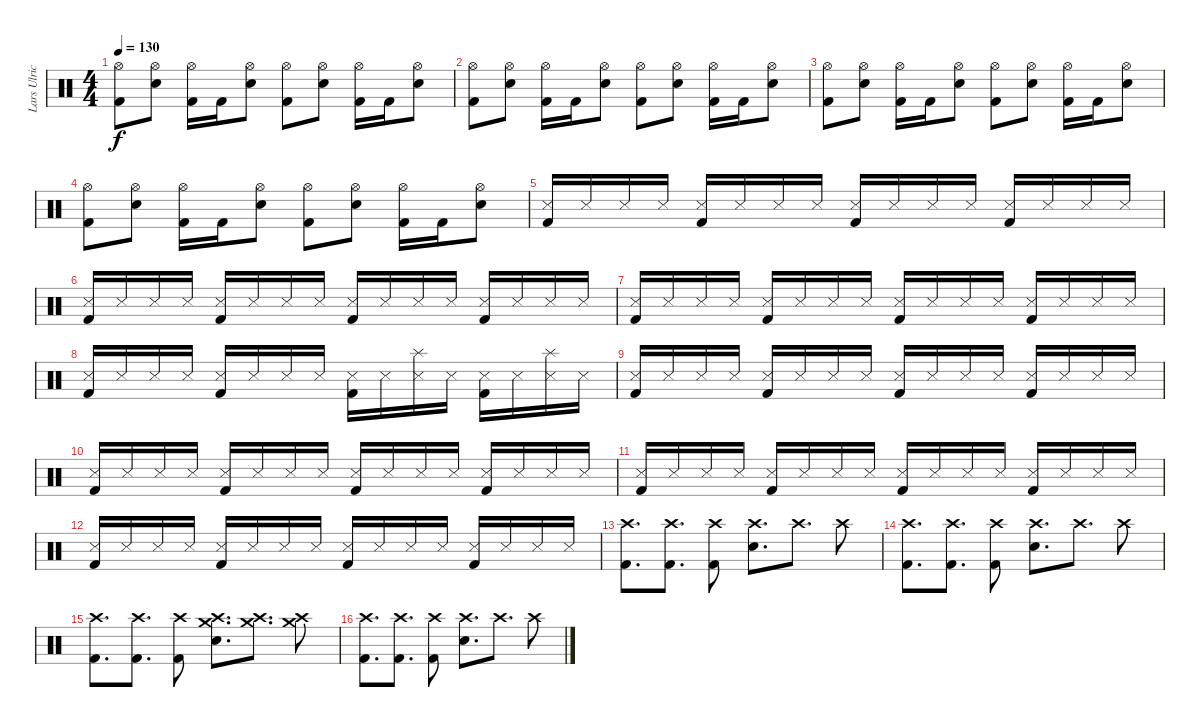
\track ("Lars Ulrich" "Lars Ulric") {instrument percussion}
\staff {score}
\articulation defaults
\ts (4 4)
\tempo 130
\clef neutral
\ks c
("Hi-Hat (open)" "Kick (hit) 2").8{dy f} ("Hi-Hat (open)" "Electric Snare (hit)").8 ("Hi-Hat (open)" "Kick (hit) 2").16 "Kick (hit) 2".16 ("Hi-Hat (open)" "Electric Snare (hit)").8 ("Hi-Hat (open)" "Kick (hit) 2").8 ("Hi-Hat (open)" "Electric Snare (hit)").8 ("Hi-Hat (open)" "Kick (hit) 2").16 "Kick (hit) 2".16 ("Hi-Hat (open)" "Electric Snare (hit)").8 |
("Hi-Hat (open)" "Kick (hit) 2").8 ("Hi-Hat (open)" "Electric Snare (hit)").8 ("Hi-Hat (open)" "Kick (hit) 2").16 "Kick (hit) 2".16 ("Hi-Hat (open)" "Electric Snare (hit)").8 ("Hi-Hat (open)" "Kick (hit) 2").8 ("Hi-Hat (open)" "Electric Snare (hit)").8 ("Hi-Hat (open)" "Kick (hit) 2").16 "Kick (hit) 2".16 ("Hi-Hat (open)" "Electric Snare (hit)").8 |
("Hi-Hat (open)" "Kick (hit) 2").8 ("Hi-Hat (open)" "Electric Snare (hit)").8 ("Hi-Hat (open)" "Kick (hit) 2").16 "Kick (hit) 2".16 ("Hi-Hat (open)" "Electric Snare (hit)").8 ("Hi-Hat (open)" "Kick (hit) 2").8 ("Hi-Hat (open)" "Electric Snare (hit)").8 ("Hi-Hat (open)" "Kick (hit) 2").16 "Kick (hit) 2".16 ("Hi-Hat (open)" "Electric Snare (hit)").8 |
("Hi-Hat (open)" "Kick (hit) 2").8 ("Hi-Hat (open)" "Electric Snare (hit)").8 ("Hi-Hat (open)" "Kick (hit) 2").16 "Kick (hit) 2".16 ("Hi-Hat (open)" "Electric Snare (hit)").8 ("Hi-Hat (open)" "Kick (hit) 2").8 ("Hi-Hat (open)" "Electric Snare (hit)").8 ("Hi-Hat (open)" "Kick (hit) 2").16 "Kick (hit) 2".16 ("Hi-Hat (open)" "Electric Snare (hit)").8 |
("Metronome (hit)" "Kick (hit) 2").16 "Snare (side stick) 3".16 "Snare (side stick) 3".16 "Snare (side stick) 3".16 ("Metronome (hit)" "Kick (hit) 2").16 "Snare (side stick) 3".16 "Snare (side stick) 3".16 "Snare (side stick) 3".16 ("Metronome (hit)" "Kick (hit) 2").16 "Snare (side stick) 3".16 "Snare (side stick) 3".16 "Snare (side stick) 3".16 ("Metronome (hit)" "Kick (hit) 2").16 "Snare (side stick) 3".16 "Snare (side stick) 3".16 "Snare (side stick) 3".16 |
("Metronome (hit)" "Kick (hit) 2").16 "Snare (side stick) 3".16 "Snare (side stick) 3".16 "Snare (side stick) 3".16 ("Metronome (hit)" "Kick (hit) 2").16 "Snare (side stick) 3".16 "Snare (side stick) 3".16 "Snare (side stick) 3".16 ("Metronome (hit)" "Kick (hit) 2").16 "Snare (side stick) 3".16 "Snare (side stick) 3".16 "Snare (side stick) 3".16 ("Metronome (hit)" "Kick (hit) 2").16 "Snare (side stick) 3".16 "Snare (side stick) 3".16 "Snare (side stick) 3".16 |
("Metronome (hit)" "Kick (hit) 2").16 "Snare (side stick) 3".16 "Snare (side stick) 3".16 "Snare (side stick) 3".16 ("Metronome (hit)" "Kick (hit) 2").16 "Snare (side stick) 3".16 "Snare (side stick) 3".16 "Snare (side stick) 3".16 ("Metronome (hit)" "Kick (hit) 2").16 "Snare (side stick) 3".16 "Snare (side stick) 3".16 "Snare (side stick) 3".16 ("Metronome (hit)" "Kick (hit) 2").16 "Snare (side stick) 3".16 "Snare (side stick) 3".16 "Snare (side stick) 3".16 |
("Metronome (hit)" "Kick (hit) 2").16 "Snare (side stick) 3".16 "Snare (side stick) 3".16 "Snare (side stick) 3".16 ("Metronome (hit)" "Kick (hit) 2").16 "Snare (side stick) 3".16 "Snare (side stick) 3".16 "Snare (side stick) 3".16 ("Metronome (hit)" "Kick (hit) 2").16 "Snare (side stick) 3".16 ("Splash (hit)" "Snare (side stick) 3").16 "Snare (side stick) 3".16 ("Metronome (hit)" "Kick (hit) 2").16 "Snare (side stick) 3".16 ("Splash (hit)" "Snare (side stick) 3").16 "Snare (side stick) 3".16 |
("Metronome (hit)" "Kick (hit) 2").16 "Snare (side stick) 3".16 "Snare (side stick) 3".16 "Snare (side stick) 3".16 ("Metronome (hit)" "Kick (hit) 2").16 "Snare (side stick) 3".16 "Snare (side stick) 3".16 "Snare (side stick) 3".16 ("Metronome (hit)" "Kick (hit) 2").16 "Snare (side stick) 3".16 "Snare (side stick) 3".16 "Snare (side stick) 3".16 ("Metronome (hit)" "Kick (hit) 2").16 "Snare (side stick) 3".16 "Snare (side stick) 3".16 "Snare (side stick) 3".16 |
("Metronome (hit)" "Kick (hit) 2").16 "Snare (side stick) 3".16 "Snare (side stick) 3".16 "Snare (side stick) 3".16 ("Metronome (hit)" "Kick (hit) 2").16 "Snare (side stick) 3".16 "Snare (side stick) 3".16 "Snare (side stick) 3".16 ("Metronome (hit)" "Kick (hit) 2").16 "Snare (side stick) 3".16 "Snare (side stick) 3".16 "Snare (side stick) 3".16 ("Metronome (hit)" "Kick (hit) 2").16 "Snare (side stick) 3".16 "Snare (side stick) 3".16 "Snare (side stick) 3".16 |
("Metronome (hit)" "Kick (hit) 2").16 "Snare (side stick) 3".16 "Snare (side stick) 3".16 "Snare (side stick) 3".16 ("Metronome (hit)" "Kick (hit) 2").16 "Snare (side stick) 3".16 "Snare (side stick) 3".16 "Snare (side stick) 3".16 ("Metronome (hit)" "Kick (hit) 2").16 "Snare (side stick) 3".16 "Snare (side stick) 3".16 "Snare (side stick) 3".16 ("Metronome (hit)" "Kick (hit) 2").16 "Snare (side stick) 3".16 "Snare (side stick) 3".16 "Snare (side stick) 3".16 |
("Metronome (hit)" "Kick (hit) 2").16 "Snare (side stick) 3".16 "Snare (side stick) 3".16 "Snare (side stick) 3".16 ("Metronome (hit)" "Kick (hit) 2").16 "Snare (side stick) 3".16 "Snare (side stick) 3".16 "Snare (side stick) 3".16 ("Metronome (hit)" "Kick (hit) 2").16 "Snare (side stick) 3".16 "Snare (side stick) 3".16 "Snare (side stick) 3".16 ("Metronome (hit)" "Kick (hit) 2").16 "Snare (side stick) 3".16 "Snare (side stick) 3".16 "Snare (side stick) 3".16 |
("Crash high (hit)" "Kick (hit) 2").8{d} ("Crash high (hit)" "Kick (hit) 2").8{d} ("Crash high (hit)" "Kick (hit) 2").8 ("Crash high (hit)" "Electric Snare (hit)").8{d} "Crash high (hit)".8{d} "Crash high (hit)".8 |
("Crash high (hit)" "Kick (hit) 2").8{d} ("Crash high (hit)" "Kick (hit) 2").8{d} ("Crash high (hit)" "Kick (hit) 2").8 ("Crash high (hit)" "Electric Snare (hit)").8{d} "Crash high (hit)".8{d} "Crash high (hit)".8 |
("Crash high (hit)" "Kick (hit) 2").8{d} ("Crash high (hit)" "Kick (hit) 2").8{d} ("Crash high (hit)" "Kick (hit) 2").8 ("Crash medium (hit)" "Crash high (hit)" "Electric Snare (hit)").8{d} ("Crash medium (hit)" "Crash high (hit)").8{d} ("Crash medium (hit)" "Crash high (hit)").8 |
("Crash high (hit)" "Kick (hit) 2").8{d} ("Crash high (hit)" "Kick (hit) 2").8{d} ("Crash high (hit)" "Kick (hit) 2").8 ("Crash high (hit)" "Electric Snare (hit)").8{d} "Crash high (hit)".8{d} "Crash high (hit)".8
